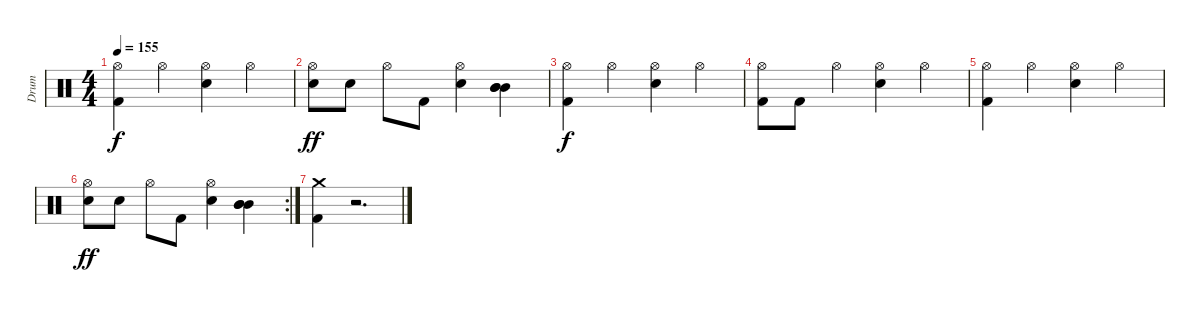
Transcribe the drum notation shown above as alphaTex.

\track ("Drum" "Drum") {instrument percussion}
\staff {score}
\articulation defaults
\ts (4 4)
\tempo 155
\clef neutral
\ks c
("Kick (hit) 2" "Hi-Hat (open)").4{dy f} "Hi-Hat (open)".4 ("Snare (hit) 2" "Hi-Hat (open)").4 "Hi-Hat (open)".4 |
("Snare (hit) 2" "Hi-Hat (open)").8{dy ff} "Snare (hit) 2".8 "Hi-Hat (open)".8 "Kick (hit) 2".8 ("Snare (hit) 2" "Hi-Hat (open)").4 ("Mid Tom (hit)" "Mid Tom (hit)" "Mid Tom (hit)").4{bu 480} |
("Kick (hit) 2" "Hi-Hat (open)").4{dy f} "Hi-Hat (open)".4 ("Snare (hit) 2" "Hi-Hat (open)").4 "Hi-Hat (open)".4 |
("Kick (hit) 2" "Hi-Hat (open)").8 "Kick (hit) 2".8 "Hi-Hat (open)".4 ("Snare (hit) 2" "Hi-Hat (open)").4 "Hi-Hat (open)".4 |
("Kick (hit) 2" "Hi-Hat (open)").4 "Hi-Hat (open)".4 ("Snare (hit) 2" "Hi-Hat (open)").4 "Hi-Hat (open)".4 |
\rc 2
("Snare (hit) 2" "Hi-Hat (open)").8{dy ff} "Snare (hit) 2".8 "Hi-Hat (open)".8 "Kick (hit) 2".8 ("Snare (hit) 2" "Hi-Hat (open)").4 ("Mid Tom (hit)" "Mid Tom (hit)" "Mid Tom (hit)").4{bu 480} |
("Kick (hit) 2" "Crash medium (hit)").4 r.2{d}
